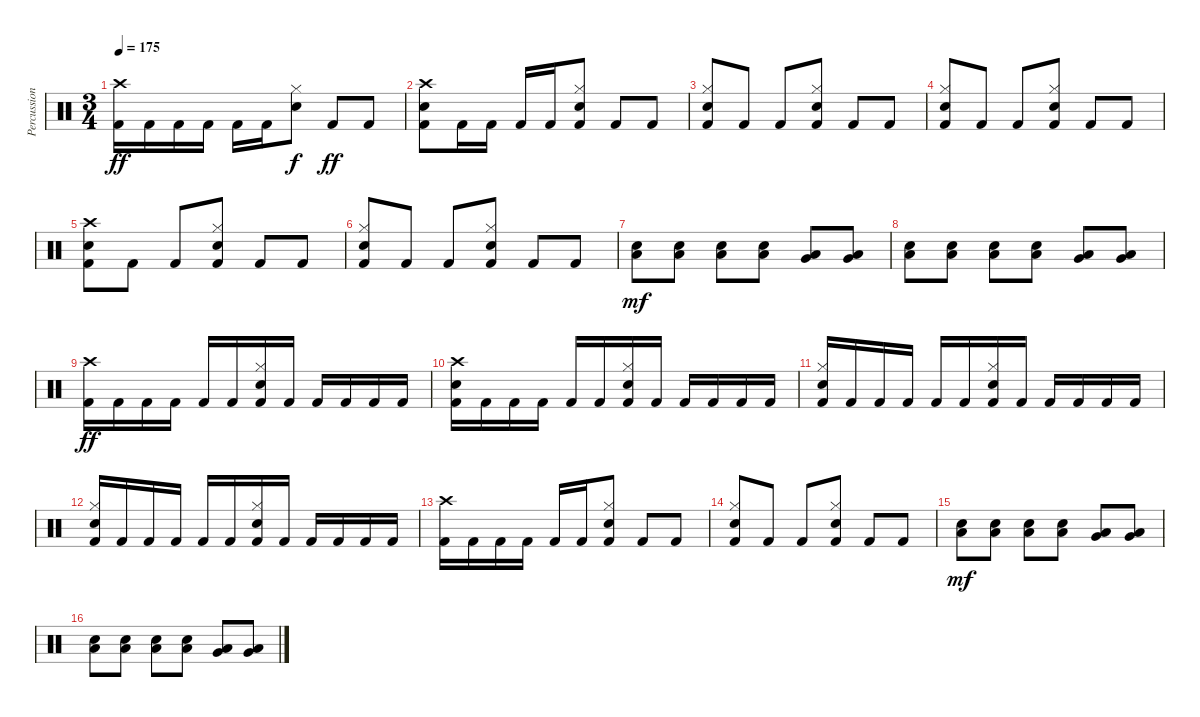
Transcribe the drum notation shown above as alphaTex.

\track ("Percussion" "Percussion") {instrument percussion}
\staff {score}
\articulation defaults
\ts (3 4)
\tempo 175
\clef neutral
\ks c
("Crash high (hit)" "Kick (hit) 2").16{dy ff volume 12} "Kick (hit) 2".16 "Kick (hit) 2".16 "Kick (hit) 2".16 "Kick (hit) 2".16 "Kick (hit) 2".16 ("Hi-Hat (closed)" "Snare (hit) 2").8{dy f} "Kick (hit) 2".8{dy ff} "Kick (hit) 2".8 |
("Crash high (hit)" "Snare (hit) 2" "Kick (hit) 2").8 "Kick (hit) 2".16 "Kick (hit) 2".16 "Kick (hit) 2".16 "Kick (hit) 2".16 ("Hi-Hat (closed)" "Snare (hit) 2" "Kick (hit) 2").8 "Kick (hit) 2".8 "Kick (hit) 2".8 |
("Hi-Hat (closed)" "Snare (hit) 2" "Kick (hit) 2").8 "Kick (hit) 2".8 "Kick (hit) 2".8 ("Hi-Hat (closed)" "Snare (hit) 2" "Kick (hit) 2").8 "Kick (hit) 2".8 "Kick (hit) 2".8 |
("Hi-Hat (closed)" "Snare (hit) 2" "Kick (hit) 2").8 "Kick (hit) 2".8 "Kick (hit) 2".8 ("Hi-Hat (closed)" "Snare (hit) 2" "Kick (hit) 2").8 "Kick (hit) 2".8 "Kick (hit) 2".8 |
("Crash high (hit)" "Snare (hit) 2" "Kick (hit) 2").8 "Kick (hit) 2".8 "Kick (hit) 2".8 ("Hi-Hat (closed)" "Snare (hit) 2" "Kick (hit) 2").8 "Kick (hit) 2".8 "Kick (hit) 2".8 |
("Hi-Hat (closed)" "Snare (hit) 2" "Kick (hit) 2").8 "Kick (hit) 2".8 "Kick (hit) 2".8 ("Hi-Hat (closed)" "Snare (hit) 2" "Kick (hit) 2").8 "Kick (hit) 2".8 "Kick (hit) 2".8 |
("Low Floor Tom (hit)" "Snare (hit) 2").8{dy mf} ("Low Floor Tom (hit)" "Snare (hit) 2").8 ("Low Floor Tom (hit)" "Snare (hit) 2").8 ("Low Floor Tom (hit)" "Snare (hit) 2").8 ("Very Low Tom (hit)" "Low Floor Tom (hit)").8 ("Very Low Tom (hit)" "Low Floor Tom (hit)").8 |
("Low Floor Tom (hit)" "Snare (hit) 2").8 ("Low Floor Tom (hit)" "Snare (hit) 2").8 ("Low Floor Tom (hit)" "Snare (hit) 2").8 ("Low Floor Tom (hit)" "Snare (hit) 2").8 ("Very Low Tom (hit)" "Low Floor Tom (hit)").8 ("Very Low Tom (hit)" "Low Floor Tom (hit)").8 |
("Crash high (hit)" "Kick (hit) 2").16{dy ff} "Kick (hit) 2".16 "Kick (hit) 2".16 "Kick (hit) 2".16 "Kick (hit) 2".16 "Kick (hit) 2".16 ("Hi-Hat (closed)" "Snare (hit) 2" "Kick (hit) 2").16 "Kick (hit) 2".16 "Kick (hit) 2".16 "Kick (hit) 2".16 "Kick (hit) 2".16 "Kick (hit) 2".16 |
("Crash high (hit)" "Snare (hit) 2" "Kick (hit) 2").16 "Kick (hit) 2".16 "Kick (hit) 2".16 "Kick (hit) 2".16 "Kick (hit) 2".16 "Kick (hit) 2".16 ("Hi-Hat (closed)" "Snare (hit) 2" "Kick (hit) 2").16 "Kick (hit) 2".16 "Kick (hit) 2".16 "Kick (hit) 2".16 "Kick (hit) 2".16 "Kick (hit) 2".16 |
("Hi-Hat (closed)" "Snare (hit) 2" "Kick (hit) 2").16 "Kick (hit) 2".16 "Kick (hit) 2".16 "Kick (hit) 2".16 "Kick (hit) 2".16 "Kick (hit) 2".16 ("Hi-Hat (closed)" "Snare (hit) 2" "Kick (hit) 2").16 "Kick (hit) 2".16 "Kick (hit) 2".16 "Kick (hit) 2".16 "Kick (hit) 2".16 "Kick (hit) 2".16 |
("Hi-Hat (closed)" "Snare (hit) 2" "Kick (hit) 2").16 "Kick (hit) 2".16 "Kick (hit) 2".16 "Kick (hit) 2".16 "Kick (hit) 2".16 "Kick (hit) 2".16 ("Hi-Hat (closed)" "Snare (hit) 2" "Kick (hit) 2").16 "Kick (hit) 2".16 "Kick (hit) 2".16 "Kick (hit) 2".16 "Kick (hit) 2".16 "Kick (hit) 2".16 |
("Crash high (hit)" "Kick (hit) 2").16 "Kick (hit) 2".16 "Kick (hit) 2".16 "Kick (hit) 2".16 "Kick (hit) 2".16 "Kick (hit) 2".16 ("Hi-Hat (closed)" "Snare (hit) 2" "Kick (hit) 2").8 "Kick (hit) 2".8 "Kick (hit) 2".8 |
("Hi-Hat (closed)" "Snare (hit) 2" "Kick (hit) 2").8 "Kick (hit) 2".8 "Kick (hit) 2".8 ("Hi-Hat (closed)" "Snare (hit) 2" "Kick (hit) 2").8 "Kick (hit) 2".8 "Kick (hit) 2".8 |
("Low Floor Tom (hit)" "Snare (hit) 2").8{dy mf} ("Low Floor Tom (hit)" "Snare (hit) 2").8 ("Low Floor Tom (hit)" "Snare (hit) 2").8 ("Low Floor Tom (hit)" "Snare (hit) 2").8 ("Very Low Tom (hit)" "Low Floor Tom (hit)").8 ("Very Low Tom (hit)" "Low Floor Tom (hit)").8 |
("Low Floor Tom (hit)" "Snare (hit) 2").8 ("Low Floor Tom (hit)" "Snare (hit) 2").8 ("Low Floor Tom (hit)" "Snare (hit) 2").8 ("Low Floor Tom (hit)" "Snare (hit) 2").8 ("Very Low Tom (hit)" "Low Floor Tom (hit)").8 ("Very Low Tom (hit)" "Low Floor Tom (hit)").8
